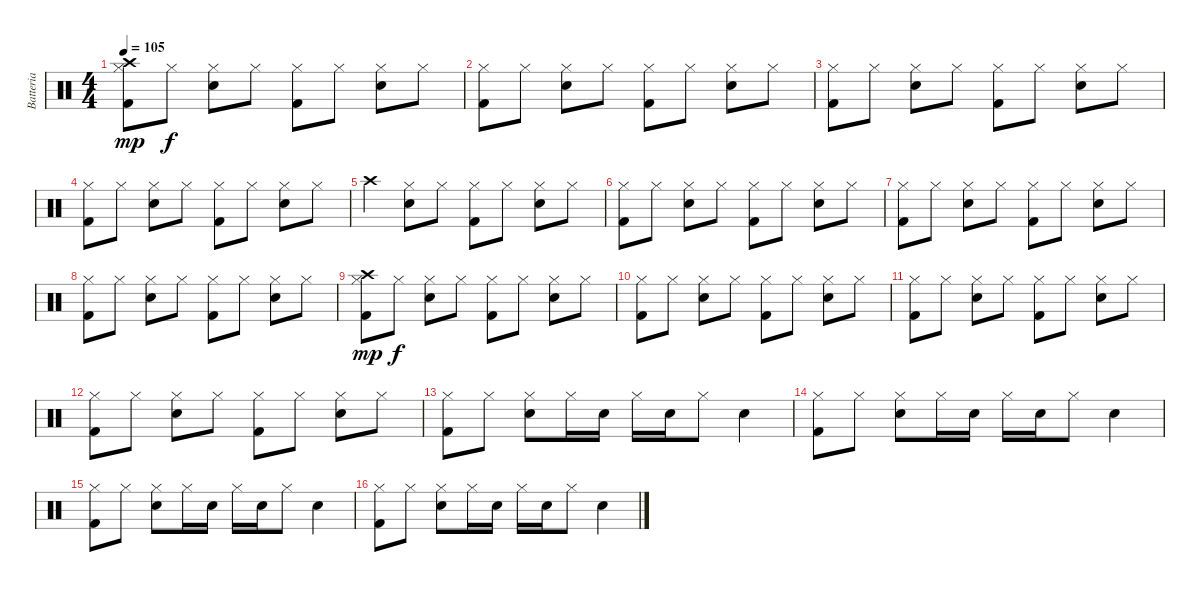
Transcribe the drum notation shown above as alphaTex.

\track ("Batteria" "Batteria") {instrument percussion}
\staff {score}
\articulation defaults
\ts (4 4)
\tempo 105
\clef neutral
\ks c
("Hi-Hat (closed)" "Kick (hit) 2" "Crash high (hit)").8{dy mp} "Hi-Hat (closed)".8{dy f} ("Hi-Hat (closed)" "Snare (hit) 2").8 "Hi-Hat (closed)".8 ("Hi-Hat (closed)" "Kick (hit) 2").8 "Hi-Hat (closed)".8 ("Hi-Hat (closed)" "Snare (hit) 2").8 "Hi-Hat (closed)".8 |
("Hi-Hat (closed)" "Kick (hit) 2").8 "Hi-Hat (closed)".8 ("Hi-Hat (closed)" "Snare (hit) 2").8 "Hi-Hat (closed)".8 ("Hi-Hat (closed)" "Kick (hit) 2").8 "Hi-Hat (closed)".8 ("Hi-Hat (closed)" "Snare (hit) 2").8 "Hi-Hat (closed)".8 |
("Hi-Hat (closed)" "Kick (hit) 2").8 "Hi-Hat (closed)".8 ("Hi-Hat (closed)" "Snare (hit) 2").8 "Hi-Hat (closed)".8 ("Hi-Hat (closed)" "Kick (hit) 2").8 "Hi-Hat (closed)".8 ("Hi-Hat (closed)" "Snare (hit) 2").8 "Hi-Hat (closed)".8 |
("Hi-Hat (closed)" "Kick (hit) 2").8 "Hi-Hat (closed)".8 ("Hi-Hat (closed)" "Snare (hit) 2").8 "Hi-Hat (closed)".8 ("Hi-Hat (closed)" "Kick (hit) 2").8 "Hi-Hat (closed)".8 ("Hi-Hat (closed)" "Snare (hit) 2").8 "Hi-Hat (closed)".8 |
"Crash high (hit)".4 ("Hi-Hat (closed)" "Snare (hit) 2").8 "Hi-Hat (closed)".8 ("Hi-Hat (closed)" "Kick (hit) 2").8 "Hi-Hat (closed)".8 ("Hi-Hat (closed)" "Snare (hit) 2").8 "Hi-Hat (closed)".8 |
("Hi-Hat (closed)" "Kick (hit) 2").8 "Hi-Hat (closed)".8 ("Hi-Hat (closed)" "Snare (hit) 2").8 "Hi-Hat (closed)".8 ("Hi-Hat (closed)" "Kick (hit) 2").8 "Hi-Hat (closed)".8 ("Hi-Hat (closed)" "Snare (hit) 2").8 "Hi-Hat (closed)".8 |
("Hi-Hat (closed)" "Kick (hit) 2").8 "Hi-Hat (closed)".8 ("Hi-Hat (closed)" "Snare (hit) 2").8 "Hi-Hat (closed)".8 ("Hi-Hat (closed)" "Kick (hit) 2").8 "Hi-Hat (closed)".8 ("Hi-Hat (closed)" "Snare (hit) 2").8 "Hi-Hat (closed)".8 |
("Hi-Hat (closed)" "Kick (hit) 2").8 "Hi-Hat (closed)".8 ("Hi-Hat (closed)" "Snare (hit) 2").8 "Hi-Hat (closed)".8 ("Hi-Hat (closed)" "Kick (hit) 2").8 "Hi-Hat (closed)".8 ("Hi-Hat (closed)" "Snare (hit) 2").8 "Hi-Hat (closed)".8 |
("Hi-Hat (closed)" "Kick (hit) 2" "Crash high (hit)").8{dy mp} "Hi-Hat (closed)".8{dy f} ("Hi-Hat (closed)" "Snare (hit) 2").8 "Hi-Hat (closed)".8 ("Hi-Hat (closed)" "Kick (hit) 2").8 "Hi-Hat (closed)".8 ("Hi-Hat (closed)" "Snare (hit) 2").8 "Hi-Hat (closed)".8 |
("Hi-Hat (closed)" "Kick (hit) 2").8 "Hi-Hat (closed)".8 ("Hi-Hat (closed)" "Snare (hit) 2").8 "Hi-Hat (closed)".8 ("Hi-Hat (closed)" "Kick (hit) 2").8 "Hi-Hat (closed)".8 ("Hi-Hat (closed)" "Snare (hit) 2").8 "Hi-Hat (closed)".8 |
("Hi-Hat (closed)" "Kick (hit) 2").8 "Hi-Hat (closed)".8 ("Hi-Hat (closed)" "Snare (hit) 2").8 "Hi-Hat (closed)".8 ("Hi-Hat (closed)" "Kick (hit) 2").8 "Hi-Hat (closed)".8 ("Hi-Hat (closed)" "Snare (hit) 2").8 "Hi-Hat (closed)".8 |
("Hi-Hat (closed)" "Kick (hit) 2").8 "Hi-Hat (closed)".8 ("Hi-Hat (closed)" "Snare (hit) 2").8 "Hi-Hat (closed)".8 ("Hi-Hat (closed)" "Kick (hit) 2").8 "Hi-Hat (closed)".8 ("Hi-Hat (closed)" "Snare (hit) 2").8 "Hi-Hat (closed)".8 |
("Hi-Hat (closed)" "Kick (hit) 2").8 "Hi-Hat (closed)".8 ("Hi-Hat (closed)" "Snare (hit) 2").8 "Hi-Hat (closed)".16 "Snare (hit) 2".16 "Hi-Hat (closed)".16 "Snare (hit) 2".16 "Hi-Hat (closed)".8 "Snare (hit) 2".4 |
("Hi-Hat (closed)" "Kick (hit) 2").8 "Hi-Hat (closed)".8 ("Hi-Hat (closed)" "Snare (hit) 2").8 "Hi-Hat (closed)".16 "Snare (hit) 2".16 "Hi-Hat (closed)".16 "Snare (hit) 2".16 "Hi-Hat (closed)".8 "Snare (hit) 2".4 |
("Hi-Hat (closed)" "Kick (hit) 2").8 "Hi-Hat (closed)".8 ("Hi-Hat (closed)" "Snare (hit) 2").8 "Hi-Hat (closed)".16 "Snare (hit) 2".16 "Hi-Hat (closed)".16 "Snare (hit) 2".16 "Hi-Hat (closed)".8 "Snare (hit) 2".4 |
("Hi-Hat (closed)" "Kick (hit) 2").8 "Hi-Hat (closed)".8 ("Hi-Hat (closed)" "Snare (hit) 2").8 "Hi-Hat (closed)".16 "Snare (hit) 2".16 "Hi-Hat (closed)".16 "Snare (hit) 2".16 "Hi-Hat (closed)".8 "Snare (hit) 2".4
